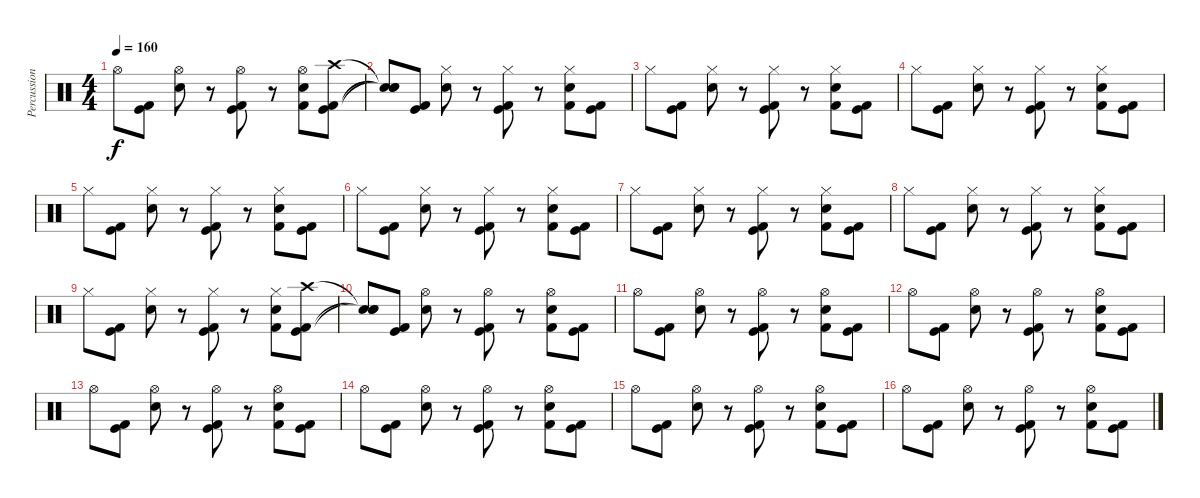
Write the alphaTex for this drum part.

\track ("Percussions" "Percussion") {instrument percussion}
\staff {score}
\articulation defaults
\ts (4 4)
\tempo 160
\clef neutral
\ks c "Hi-Hat (open)".8{dy f}
("Kick (hit) 2" "Kick (hit)").8 ("Snare (hit) 2" "Hi-Hat (open)").8 r.8 ("Kick (hit) 2" "Kick (hit)" "Hi-Hat (open)").8 r.8 ("Kick (hit) 2" "Snare (hit) 2" "Hi-Hat (open)").8 ("Kick (hit) 2" "Kick (hit)" "Crash high (hit)").8 |
("Snare (hit)"{t} "Snare (hit)"{t} "Snare (hit)"{t}).8 ("Kick (hit) 2" "Kick (hit)").8 ("Snare (hit) 2" "Hi-Hat (closed)").8 r.8 ("Kick (hit) 2" "Kick (hit)" "Hi-Hat (closed)").8 r.8 ("Kick (hit) 2" "Snare (hit) 2" "Hi-Hat (closed)").8 ("Kick (hit) 2" "Kick (hit)").8 |
"Hi-Hat (closed)".8 ("Kick (hit) 2" "Kick (hit)").8 ("Snare (hit) 2" "Hi-Hat (closed)").8 r.8 ("Kick (hit) 2" "Kick (hit)" "Hi-Hat (closed)").8 r.8 ("Kick (hit) 2" "Snare (hit) 2" "Hi-Hat (closed)").8 ("Kick (hit) 2" "Kick (hit)").8 |
"Hi-Hat (closed)".8 ("Kick (hit) 2" "Kick (hit)").8 ("Snare (hit) 2" "Hi-Hat (closed)").8 r.8 ("Kick (hit) 2" "Kick (hit)" "Hi-Hat (closed)").8 r.8 ("Kick (hit) 2" "Snare (hit) 2" "Hi-Hat (closed)").8 ("Kick (hit) 2" "Kick (hit)").8 |
"Hi-Hat (closed)".8 ("Kick (hit) 2" "Kick (hit)").8 ("Snare (hit) 2" "Hi-Hat (closed)").8 r.8 ("Kick (hit) 2" "Kick (hit)" "Hi-Hat (closed)").8 r.8 ("Kick (hit) 2" "Snare (hit) 2" "Hi-Hat (closed)").8 ("Kick (hit) 2" "Kick (hit)").8 |
"Hi-Hat (closed)".8 ("Kick (hit) 2" "Kick (hit)").8 ("Snare (hit) 2" "Hi-Hat (closed)").8 r.8 ("Kick (hit) 2" "Kick (hit)" "Hi-Hat (closed)").8 r.8 ("Kick (hit) 2" "Snare (hit) 2" "Hi-Hat (closed)").8 ("Kick (hit) 2" "Kick (hit)").8 |
"Hi-Hat (closed)".8 ("Kick (hit) 2" "Kick (hit)").8 ("Snare (hit) 2" "Hi-Hat (closed)").8 r.8 ("Kick (hit) 2" "Kick (hit)" "Hi-Hat (closed)").8 r.8 ("Kick (hit) 2" "Snare (hit) 2" "Hi-Hat (closed)").8 ("Kick (hit) 2" "Kick (hit)").8 |
"Hi-Hat (closed)".8 ("Kick (hit) 2" "Kick (hit)").8 ("Snare (hit) 2" "Hi-Hat (closed)").8 r.8 ("Kick (hit) 2" "Kick (hit)" "Hi-Hat (closed)").8 r.8 ("Kick (hit) 2" "Snare (hit) 2" "Hi-Hat (closed)").8 ("Kick (hit) 2" "Kick (hit)").8 |
"Hi-Hat (closed)".8 ("Kick (hit) 2" "Kick (hit)").8 ("Snare (hit) 2" "Hi-Hat (closed)").8 r.8 ("Kick (hit) 2" "Kick (hit)" "Hi-Hat (closed)").8 r.8 ("Kick (hit) 2" "Snare (hit) 2" "Hi-Hat (closed)").8 ("Kick (hit) 2" "Kick (hit)" "Crash high (hit)").8 |
("Snare (hit)"{t} "Snare (hit)"{t} "Snare (hit)"{t}).8 ("Kick (hit) 2" "Kick (hit)").8 ("Snare (hit) 2" "Hi-Hat (open)").8 r.8 ("Kick (hit) 2" "Kick (hit)" "Hi-Hat (open)").8 r.8 ("Kick (hit) 2" "Snare (hit) 2" "Hi-Hat (open)").8 ("Kick (hit) 2" "Kick (hit)").8 |
"Hi-Hat (open)".8 ("Kick (hit) 2" "Kick (hit)").8 ("Snare (hit) 2" "Hi-Hat (open)").8 r.8 ("Kick (hit) 2" "Kick (hit)" "Hi-Hat (open)").8 r.8 ("Kick (hit) 2" "Snare (hit) 2" "Hi-Hat (open)").8 ("Kick (hit) 2" "Kick (hit)").8 |
"Hi-Hat (open)".8 ("Kick (hit) 2" "Kick (hit)").8 ("Snare (hit) 2" "Hi-Hat (open)").8 r.8 ("Kick (hit) 2" "Kick (hit)" "Hi-Hat (open)").8 r.8 ("Kick (hit) 2" "Snare (hit) 2" "Hi-Hat (open)").8 ("Kick (hit) 2" "Kick (hit)").8 |
"Hi-Hat (open)".8 ("Kick (hit) 2" "Kick (hit)").8 ("Snare (hit) 2" "Hi-Hat (open)").8 r.8 ("Kick (hit) 2" "Kick (hit)" "Hi-Hat (open)").8 r.8 ("Kick (hit) 2" "Snare (hit) 2" "Hi-Hat (open)").8 ("Kick (hit) 2" "Kick (hit)").8 |
"Hi-Hat (open)".8 ("Kick (hit) 2" "Kick (hit)").8 ("Snare (hit) 2" "Hi-Hat (open)").8 r.8 ("Kick (hit) 2" "Kick (hit)" "Hi-Hat (open)").8 r.8 ("Kick (hit) 2" "Snare (hit) 2" "Hi-Hat (open)").8 ("Kick (hit) 2" "Kick (hit)").8 |
"Hi-Hat (open)".8 ("Kick (hit) 2" "Kick (hit)").8 ("Snare (hit) 2" "Hi-Hat (open)").8 r.8 ("Kick (hit) 2" "Kick (hit)" "Hi-Hat (open)").8 r.8 ("Kick (hit) 2" "Snare (hit) 2" "Hi-Hat (open)").8 ("Kick (hit) 2" "Kick (hit)").8 |
"Hi-Hat (open)".8 ("Kick (hit) 2" "Kick (hit)").8 ("Snare (hit) 2" "Hi-Hat (open)").8 r.8 ("Kick (hit) 2" "Kick (hit)" "Hi-Hat (open)").8 r.8 ("Kick (hit) 2" "Snare (hit) 2" "Hi-Hat (open)").8 ("Kick (hit) 2" "Kick (hit)").8
